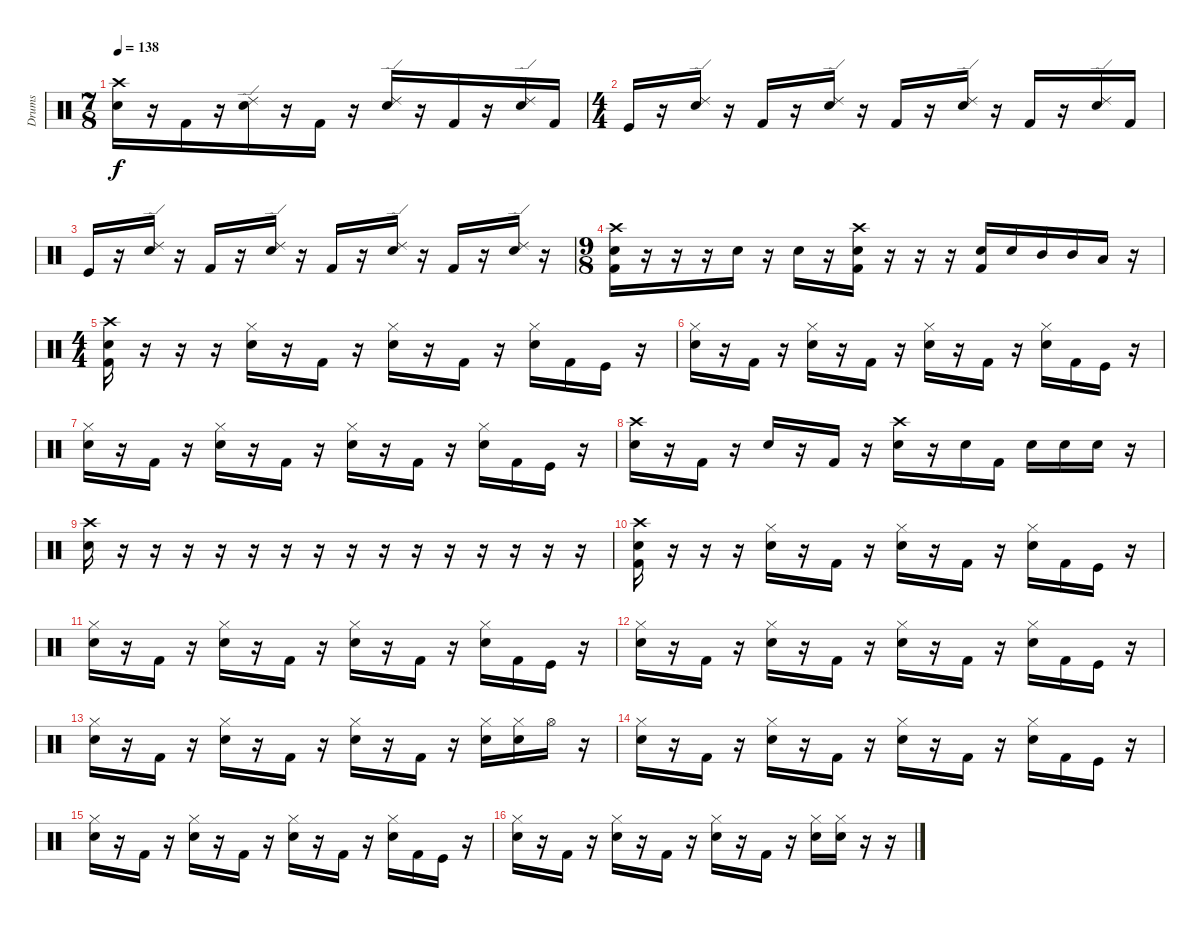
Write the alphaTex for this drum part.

\track ("Drums" "Drums") {instrument percussion}
\staff {score}
\articulation defaults
\ts (7 8)
\tempo 138
\clef neutral
\ks c
("Crash high (hit)" "Snare (hit) 2").16{dy f} r.16 "Kick (hit) 2".16 r.16 ("Ride (edge) 2" "Snare (hit) 2").16 r.16 "Kick (hit) 2".16 r.16 ("Ride (edge) 2" "Snare (hit) 2").16 r.16 "Kick (hit) 2".16 r.16 ("Ride (edge) 2" "Snare (hit) 2").16 "Kick (hit) 2".16 |
\ts (4 4)
"Kick (hit)".16 r.16 ("Ride (edge) 2" "Snare (hit) 2").16 r.16 "Kick (hit) 2".16 r.16 ("Ride (edge) 2" "Snare (hit) 2").16 r.16 "Kick (hit) 2".16 r.16 ("Ride (edge) 2" "Snare (hit) 2").16 r.16 "Kick (hit) 2".16 r.16 ("Ride (edge) 2" "Snare (hit) 2").16 "Kick (hit) 2".16 |
"Kick (hit)".16 r.16 ("Ride (edge) 2" "Snare (hit) 2").16 r.16 "Kick (hit) 2".16 r.16 ("Ride (edge) 2" "Snare (hit) 2").16 r.16 "Kick (hit) 2".16 r.16 ("Ride (edge) 2" "Snare (hit) 2").16 r.16 "Kick (hit) 2".16 r.16 ("Ride (edge) 2" "Snare (hit) 2").16 r.16 |
\ts (9 8)
("Crash high (hit)" "Snare (hit) 2" "Kick (hit) 2").16 r.16 r.16 r.16 "Snare (hit) 2".16 r.16 "Snare (hit) 2".16 r.16 ("Crash high (hit)" "Snare (hit) 2" "Kick (hit) 2").16 r.16 r.16 r.16 ("Snare (hit) 2" "Kick (hit) 2").16 "Snare (hit) 2".16 "Mid Tom (hit)".16 "Mid Tom (hit)".16 "Low Tom (hit)".16 r.16 |
\ts (4 4)
("Crash high (hit)" "Snare (hit) 2" "Kick (hit) 2").16 r.16 r.16 r.16 ("Hi-Hat (closed)" "Snare (hit) 2").16 r.16 "Kick (hit) 2".16 r.16 ("Hi-Hat (closed)" "Snare (hit) 2").16 r.16 "Kick (hit) 2".16 r.16 ("Hi-Hat (closed)" "Snare (hit) 2").16 "Kick (hit) 2".16 "Kick (hit)".16 r.16 |
("Hi-Hat (closed)" "Snare (hit) 2").16 r.16 "Kick (hit) 2".16 r.16 ("Hi-Hat (closed)" "Snare (hit) 2").16 r.16 "Kick (hit) 2".16 r.16 ("Hi-Hat (closed)" "Snare (hit) 2").16 r.16 "Kick (hit) 2".16 r.16 ("Hi-Hat (closed)" "Snare (hit) 2").16 "Kick (hit) 2".16 "Kick (hit)".16 r.16 |
("Hi-Hat (closed)" "Snare (hit) 2").16 r.16 "Kick (hit) 2".16 r.16 ("Hi-Hat (closed)" "Snare (hit) 2").16 r.16 "Kick (hit) 2".16 r.16 ("Hi-Hat (closed)" "Snare (hit) 2").16 r.16 "Kick (hit) 2".16 r.16 ("Hi-Hat (closed)" "Snare (hit) 2").16 "Kick (hit) 2".16 "Kick (hit)".16 r.16 |
("Crash high (hit)" "Snare (hit) 2").16 r.16 "Kick (hit) 2".16 r.16 "Snare (hit) 2".16 r.16 "Kick (hit) 2".16 r.16 ("Crash high (hit)" "Snare (hit) 2").16 r.16 "Snare (hit) 2".16 "Kick (hit) 2".16 "Snare (hit) 2".16 "Snare (hit) 2".16 "Snare (hit) 2".16 r.16 |
("Crash high (hit)" "Snare (hit) 2").16 r.16 r.16 r.16 r.16 r.16 r.16 r.16 r.16 r.16 r.16 r.16 r.16 r.16 r.16 r.16 |
\section ("" "")
("Crash high (hit)" "Snare (hit) 2" "Kick (hit) 2").16 r.16 r.16 r.16 ("Hi-Hat (closed)" "Snare (hit) 2").16 r.16 "Kick (hit) 2".16 r.16 ("Hi-Hat (closed)" "Snare (hit) 2").16 r.16 "Kick (hit) 2".16 r.16 ("Hi-Hat (closed)" "Snare (hit) 2").16 "Kick (hit) 2".16 "Kick (hit)".16 r.16 |
("Hi-Hat (closed)" "Snare (hit) 2").16 r.16 "Kick (hit) 2".16 r.16 ("Hi-Hat (closed)" "Snare (hit) 2").16 r.16 "Kick (hit) 2".16 r.16 ("Hi-Hat (closed)" "Snare (hit) 2").16 r.16 "Kick (hit) 2".16 r.16 ("Hi-Hat (closed)" "Snare (hit) 2").16 "Kick (hit) 2".16 "Kick (hit)".16 r.16 |
("Hi-Hat (closed)" "Snare (hit) 2").16 r.16 "Kick (hit) 2".16 r.16 ("Hi-Hat (closed)" "Snare (hit) 2").16 r.16 "Kick (hit) 2".16 r.16 ("Hi-Hat (closed)" "Snare (hit) 2").16 r.16 "Kick (hit) 2".16 r.16 ("Hi-Hat (closed)" "Snare (hit) 2").16 "Kick (hit) 2".16 "Kick (hit)".16 r.16 |
("Hi-Hat (closed)" "Snare (hit) 2").16 r.16 "Kick (hit) 2".16 r.16 ("Hi-Hat (closed)" "Snare (hit) 2").16 r.16 "Kick (hit) 2".16 r.16 ("Hi-Hat (closed)" "Snare (hit) 2").16 r.16 "Kick (hit) 2".16 r.16 ("Hi-Hat (closed)" "Snare (hit) 2").16 ("Hi-Hat (closed)" "Snare (hit) 2").16 "Hi-Hat (open)".16 r.16 |
("Hi-Hat (closed)" "Snare (hit) 2").16 r.16 "Kick (hit) 2".16 r.16 ("Hi-Hat (closed)" "Snare (hit) 2").16 r.16 "Kick (hit) 2".16 r.16 ("Hi-Hat (closed)" "Snare (hit) 2").16 r.16 "Kick (hit) 2".16 r.16 ("Hi-Hat (closed)" "Snare (hit) 2").16 "Kick (hit) 2".16 "Kick (hit)".16 r.16 |
("Hi-Hat (closed)" "Snare (hit) 2").16 r.16 "Kick (hit) 2".16 r.16 ("Hi-Hat (closed)" "Snare (hit) 2").16 r.16 "Kick (hit) 2".16 r.16 ("Hi-Hat (closed)" "Snare (hit) 2").16 r.16 "Kick (hit) 2".16 r.16 ("Hi-Hat (closed)" "Snare (hit) 2").16 "Kick (hit) 2".16 "Kick (hit)".16 r.16 |
("Hi-Hat (closed)" "Snare (hit) 2").16 r.16 "Kick (hit) 2".16 r.16 ("Hi-Hat (closed)" "Snare (hit) 2").16 r.16 "Kick (hit) 2".16 r.16 ("Hi-Hat (closed)" "Snare (hit) 2").16 r.16 "Kick (hit) 2".16 r.16 ("Hi-Hat (closed)" "Snare (hit) 2").16 ("Hi-Hat (closed)" "Snare (hit) 2").16 r.16 r.16
